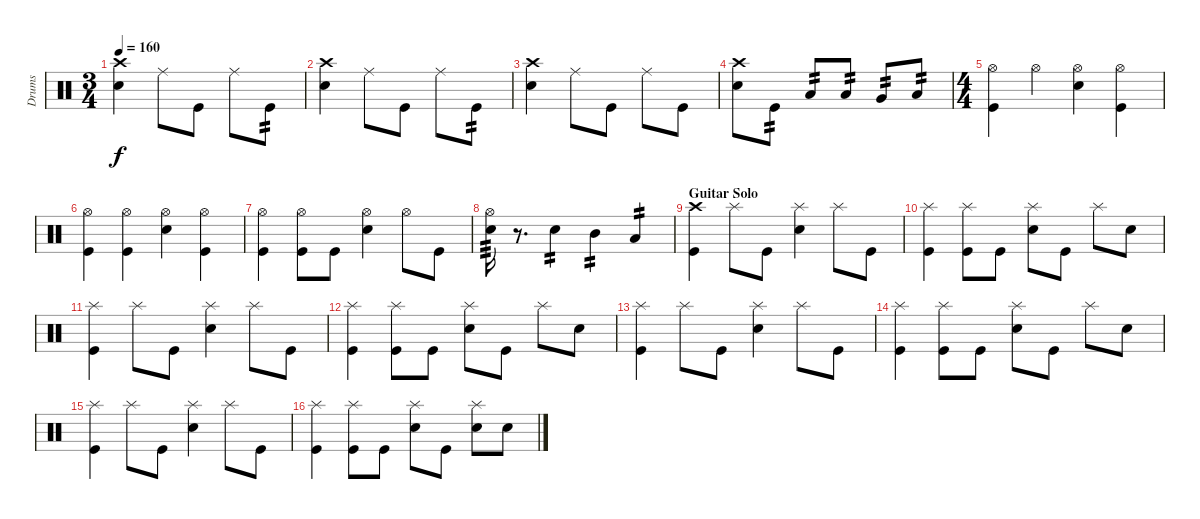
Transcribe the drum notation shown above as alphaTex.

\track ("Drums" "Drums") {instrument percussion}
\staff {score}
\articulation defaults
\ts (3 4)
\tempo 160
\clef neutral
\ks c
("Crash high (hit)" "Snare (hit) 2").4{dy f} "Ride (middle)".8 "Kick (hit)".8 "Ride (middle)".8 "Kick (hit)".8{tp 2} |
("Crash high (hit)" "Snare (hit) 2").4 "Ride (middle)".8 "Kick (hit)".8 "Ride (middle)".8 "Kick (hit)".8{tp 2} |
("Crash high (hit)" "Snare (hit) 2").4 "Ride (middle)".8 "Kick (hit)".8 "Ride (middle)".8 "Kick (hit)".8 |
("Crash high (hit)" "Snare (hit) 2").8 "Kick (hit)".8{tp 2} "Low Tom (hit)".8{tp 2} "Low Floor Tom (hit)".8{tp 2} "Very Low Tom (hit)".8{tp 2} "Low Floor Tom (hit)".8{tp 2} |
\ts (4 4)
("Hi-Hat (open)" "Kick (hit)").4 "Hi-Hat (open)".4 ("Hi-Hat (open)" "Snare (hit) 2").4 ("Hi-Hat (open)" "Kick (hit)").4 |
("Hi-Hat (open)" "Kick (hit)").4 ("Hi-Hat (open)" "Kick (hit)").4 ("Hi-Hat (open)" "Snare (hit) 2").4 ("Hi-Hat (open)" "Kick (hit)").4 |
("Hi-Hat (open)" "Kick (hit)").4 ("Hi-Hat (open)" "Kick (hit)").8 "Kick (hit)".8 ("Hi-Hat (open)" "Snare (hit) 2").4 "Hi-Hat (open)".8 "Kick (hit)".8 |
("Hi-Hat (open)" "Snare (hit) 2").16{tp 3} r.8{d} "Snare (hit) 2".4{tp 2} "Mid Tom (hit)".4{tp 2} "Low Tom (hit)".4{tp 2} |
\section ("" "Guitar Solo")
("Crash high (hit)" "Kick (hit)").4 "Splash (hit)".8 "Kick (hit)".8 ("Splash (hit)" "Snare (hit) 2").4 "Splash (hit)".8 "Kick (hit)".8 |
("Splash (hit)" "Kick (hit)").4 ("Splash (hit)" "Kick (hit)").8 "Kick (hit)".8 ("Splash (hit)" "Snare (hit) 2").8 "Kick (hit)".8 "Splash (hit)".8 "Snare (hit) 2".8 |
("Splash (hit)" "Kick (hit)").4 "Splash (hit)".8 "Kick (hit)".8 ("Splash (hit)" "Snare (hit) 2").4 "Splash (hit)".8 "Kick (hit)".8 |
("Splash (hit)" "Kick (hit)").4 ("Splash (hit)" "Kick (hit)").8 "Kick (hit)".8 ("Splash (hit)" "Snare (hit) 2").8 "Kick (hit)".8 "Splash (hit)".8 "Snare (hit) 2".8 |
("Splash (hit)" "Kick (hit)").4 "Splash (hit)".8 "Kick (hit)".8 ("Splash (hit)" "Snare (hit) 2").4 "Splash (hit)".8 "Kick (hit)".8 |
("Splash (hit)" "Kick (hit)").4 ("Splash (hit)" "Kick (hit)").8 "Kick (hit)".8 ("Splash (hit)" "Snare (hit) 2").8 "Kick (hit)".8 "Splash (hit)".8 "Snare (hit) 2".8 |
("Splash (hit)" "Kick (hit)").4 "Splash (hit)".8 "Kick (hit)".8 ("Splash (hit)" "Snare (hit) 2").4 "Splash (hit)".8 "Kick (hit)".8 |
("Splash (hit)" "Kick (hit)").4 ("Splash (hit)" "Kick (hit)").8 "Kick (hit)".8 ("Splash (hit)" "Snare (hit) 2").8 "Kick (hit)".8 ("Splash (hit)" "Snare (hit) 2").8 "Snare (hit) 2".8
